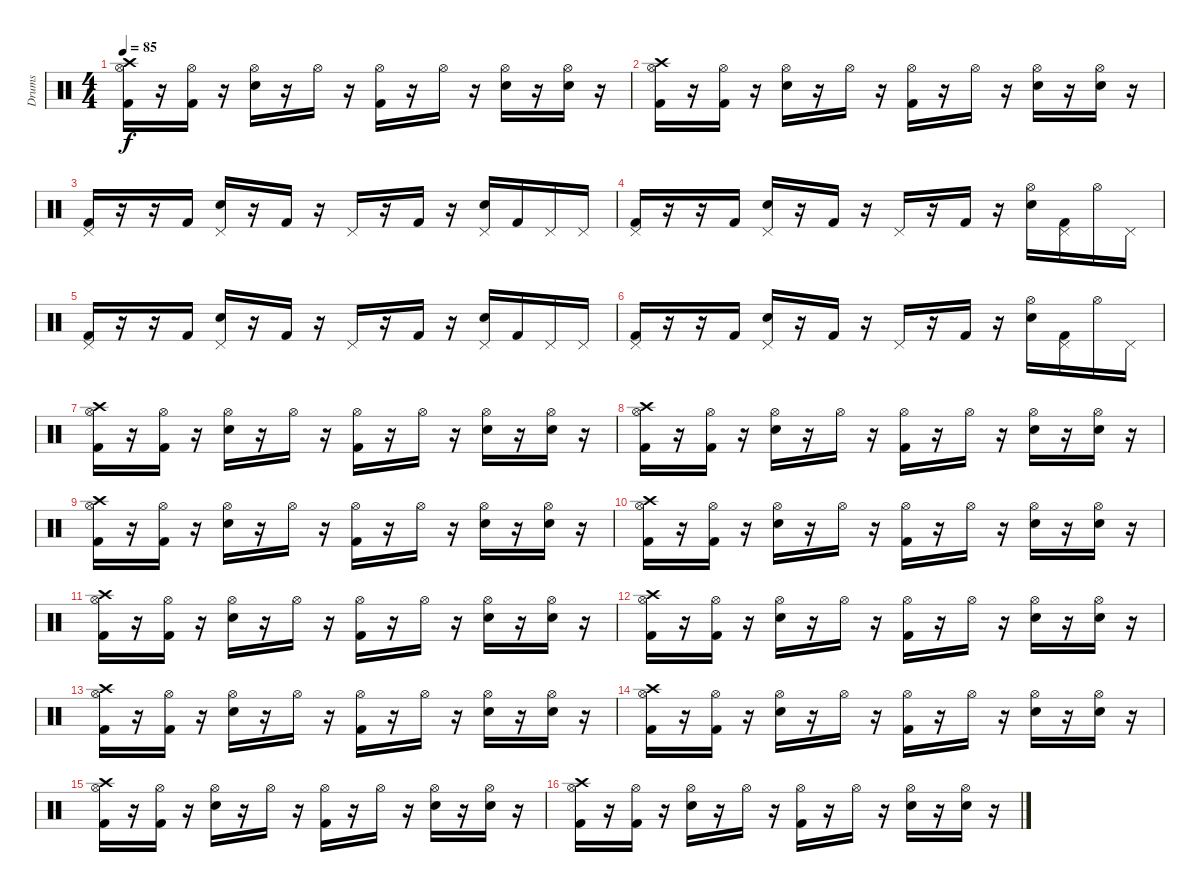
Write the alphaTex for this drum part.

\track ("Drums" "Drums") {instrument percussion}
\staff {score}
\articulation defaults
\ts (4 4)
\tempo 85
\clef neutral
\ks c
("Hi-Hat (open)" "Kick (hit) 2" "Crash high (hit)").16{dy f} r.16 ("Hi-Hat (open)" "Kick (hit) 2").16 r.16 ("Hi-Hat (open)" "Electric Snare (hit)").16 r.16 "Hi-Hat (open)".16 r.16 ("Hi-Hat (open)" "Kick (hit) 2").16 r.16 "Hi-Hat (open)".16 r.16 ("Hi-Hat (open)" "Electric Snare (hit)").16 r.16 ("Hi-Hat (open)" "Electric Snare (hit)").16 r.16 |
("Hi-Hat (open)" "Kick (hit) 2" "Crash high (hit)").16 r.16 ("Hi-Hat (open)" "Kick (hit) 2").16 r.16 ("Hi-Hat (open)" "Electric Snare (hit)").16 r.16 "Hi-Hat (open)".16 r.16 ("Hi-Hat (open)" "Kick (hit) 2").16 r.16 "Hi-Hat (open)".16 r.16 ("Hi-Hat (open)" "Electric Snare (hit)").16 r.16 ("Hi-Hat (open)" "Electric Snare (hit)").16 r.16 |
("Kick (hit) 2" "Pedal Hi-Hat (hit)").16 r.16 r.16 "Kick (hit) 2".16 ("Electric Snare (hit)" "Pedal Hi-Hat (hit)").16 r.16 "Kick (hit) 2".16 r.16 "Pedal Hi-Hat (hit)".16 r.16 "Kick (hit) 2".16 r.16 ("Electric Snare (hit)" "Pedal Hi-Hat (hit)").16 "Kick (hit) 2".16 "Pedal Hi-Hat (hit)".16 "Pedal Hi-Hat (hit)".16 |
("Kick (hit) 2" "Pedal Hi-Hat (hit)").16 r.16 r.16 "Kick (hit) 2".16 ("Electric Snare (hit)" "Pedal Hi-Hat (hit)").16 r.16 "Kick (hit) 2".16 r.16 "Pedal Hi-Hat (hit)".16 r.16 "Kick (hit) 2".16 r.16 ("Electric Snare (hit)" "Hi-Hat (open)").16 ("Kick (hit) 2" "Pedal Hi-Hat (hit)").16 "Hi-Hat (open)".16 "Pedal Hi-Hat (hit)".16 |
("Kick (hit) 2" "Pedal Hi-Hat (hit)").16 r.16 r.16 "Kick (hit) 2".16 ("Electric Snare (hit)" "Pedal Hi-Hat (hit)").16 r.16 "Kick (hit) 2".16 r.16 "Pedal Hi-Hat (hit)".16 r.16 "Kick (hit) 2".16 r.16 ("Electric Snare (hit)" "Pedal Hi-Hat (hit)").16 "Kick (hit) 2".16 "Pedal Hi-Hat (hit)".16 "Pedal Hi-Hat (hit)".16 |
("Kick (hit) 2" "Pedal Hi-Hat (hit)").16 r.16 r.16 "Kick (hit) 2".16 ("Electric Snare (hit)" "Pedal Hi-Hat (hit)").16 r.16 "Kick (hit) 2".16 r.16 "Pedal Hi-Hat (hit)".16 r.16 "Kick (hit) 2".16 r.16 ("Electric Snare (hit)" "Hi-Hat (open)").16 ("Kick (hit) 2" "Pedal Hi-Hat (hit)").16 "Hi-Hat (open)".16 "Pedal Hi-Hat (hit)".16 |
("Hi-Hat (open)" "Kick (hit) 2" "Crash high (hit)").16 r.16 ("Hi-Hat (open)" "Kick (hit) 2").16 r.16 ("Hi-Hat (open)" "Electric Snare (hit)").16 r.16 "Hi-Hat (open)".16 r.16 ("Hi-Hat (open)" "Kick (hit) 2").16 r.16 "Hi-Hat (open)".16 r.16 ("Hi-Hat (open)" "Electric Snare (hit)").16 r.16 ("Hi-Hat (open)" "Electric Snare (hit)").16 r.16 |
("Hi-Hat (open)" "Kick (hit) 2" "Crash high (hit)").16 r.16 ("Hi-Hat (open)" "Kick (hit) 2").16 r.16 ("Hi-Hat (open)" "Electric Snare (hit)").16 r.16 "Hi-Hat (open)".16 r.16 ("Hi-Hat (open)" "Kick (hit) 2").16 r.16 "Hi-Hat (open)".16 r.16 ("Hi-Hat (open)" "Electric Snare (hit)").16 r.16 ("Hi-Hat (open)" "Electric Snare (hit)").16 r.16 |
("Hi-Hat (open)" "Kick (hit) 2" "Crash high (hit)").16 r.16 ("Hi-Hat (open)" "Kick (hit) 2").16 r.16 ("Hi-Hat (open)" "Electric Snare (hit)").16 r.16 "Hi-Hat (open)".16 r.16 ("Hi-Hat (open)" "Kick (hit) 2").16 r.16 "Hi-Hat (open)".16 r.16 ("Hi-Hat (open)" "Electric Snare (hit)").16 r.16 ("Hi-Hat (open)" "Electric Snare (hit)").16 r.16 |
("Hi-Hat (open)" "Kick (hit) 2" "Crash high (hit)").16 r.16 ("Hi-Hat (open)" "Kick (hit) 2").16 r.16 ("Hi-Hat (open)" "Electric Snare (hit)").16 r.16 "Hi-Hat (open)".16 r.16 ("Hi-Hat (open)" "Kick (hit) 2").16 r.16 "Hi-Hat (open)".16 r.16 ("Hi-Hat (open)" "Electric Snare (hit)").16 r.16 ("Hi-Hat (open)" "Electric Snare (hit)").16 r.16 |
("Hi-Hat (open)" "Kick (hit) 2" "Crash high (hit)").16 r.16 ("Hi-Hat (open)" "Kick (hit) 2").16 r.16 ("Hi-Hat (open)" "Electric Snare (hit)").16 r.16 "Hi-Hat (open)".16 r.16 ("Hi-Hat (open)" "Kick (hit) 2").16 r.16 "Hi-Hat (open)".16 r.16 ("Hi-Hat (open)" "Electric Snare (hit)").16 r.16 ("Hi-Hat (open)" "Electric Snare (hit)").16 r.16 |
("Hi-Hat (open)" "Kick (hit) 2" "Crash high (hit)").16 r.16 ("Hi-Hat (open)" "Kick (hit) 2").16 r.16 ("Hi-Hat (open)" "Electric Snare (hit)").16 r.16 "Hi-Hat (open)".16 r.16 ("Hi-Hat (open)" "Kick (hit) 2").16 r.16 "Hi-Hat (open)".16 r.16 ("Hi-Hat (open)" "Electric Snare (hit)").16 r.16 ("Hi-Hat (open)" "Electric Snare (hit)").16 r.16 |
("Hi-Hat (open)" "Kick (hit) 2" "Crash high (hit)").16 r.16 ("Hi-Hat (open)" "Kick (hit) 2").16 r.16 ("Hi-Hat (open)" "Electric Snare (hit)").16 r.16 "Hi-Hat (open)".16 r.16 ("Hi-Hat (open)" "Kick (hit) 2").16 r.16 "Hi-Hat (open)".16 r.16 ("Hi-Hat (open)" "Electric Snare (hit)").16 r.16 ("Hi-Hat (open)" "Electric Snare (hit)").16 r.16 |
("Hi-Hat (open)" "Kick (hit) 2" "Crash high (hit)").16 r.16 ("Hi-Hat (open)" "Kick (hit) 2").16 r.16 ("Hi-Hat (open)" "Electric Snare (hit)").16 r.16 "Hi-Hat (open)".16 r.16 ("Hi-Hat (open)" "Kick (hit) 2").16 r.16 "Hi-Hat (open)".16 r.16 ("Hi-Hat (open)" "Electric Snare (hit)").16 r.16 ("Hi-Hat (open)" "Electric Snare (hit)").16 r.16 |
("Hi-Hat (open)" "Kick (hit) 2" "Crash high (hit)").16 r.16 ("Hi-Hat (open)" "Kick (hit) 2").16 r.16 ("Hi-Hat (open)" "Electric Snare (hit)").16 r.16 "Hi-Hat (open)".16 r.16 ("Hi-Hat (open)" "Kick (hit) 2").16 r.16 "Hi-Hat (open)".16 r.16 ("Hi-Hat (open)" "Electric Snare (hit)").16 r.16 ("Hi-Hat (open)" "Electric Snare (hit)").16 r.16 |
("Hi-Hat (open)" "Kick (hit) 2" "Crash high (hit)").16 r.16 ("Hi-Hat (open)" "Kick (hit) 2").16 r.16 ("Hi-Hat (open)" "Electric Snare (hit)").16 r.16 "Hi-Hat (open)".16 r.16 ("Hi-Hat (open)" "Kick (hit) 2").16 r.16 "Hi-Hat (open)".16 r.16 ("Hi-Hat (open)" "Electric Snare (hit)").16 r.16 ("Hi-Hat (open)" "Electric Snare (hit)").16 r.16
